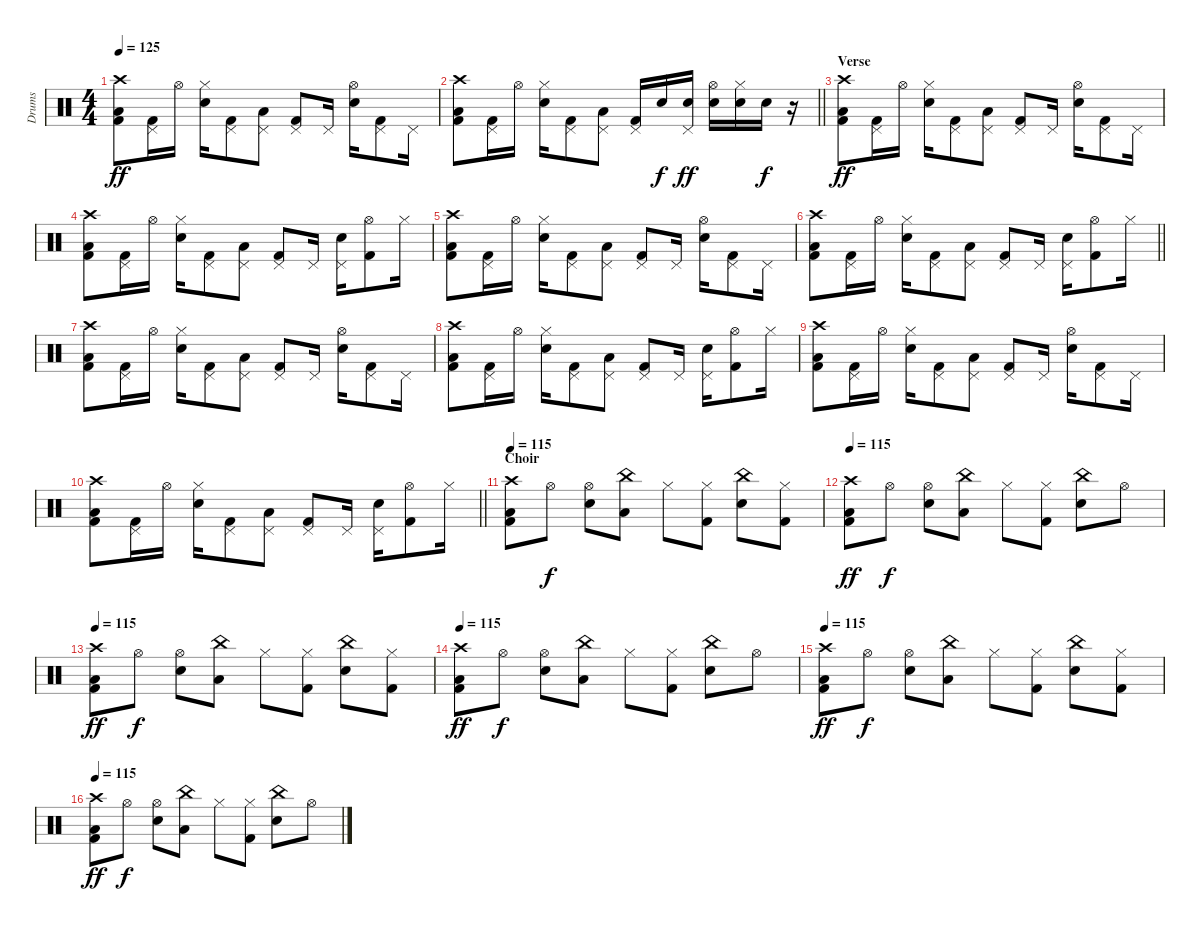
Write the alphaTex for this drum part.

\track ("Drums" "Drums") {instrument percussion}
\staff {score}
\articulation defaults
\ts (4 4)
\tempo 125
\clef neutral
\ks c
("Low Tom (hit)" "Kick (hit) 2" "Crash high (hit)").8{dy ff} ("Kick (hit) 2" "Pedal Hi-Hat (hit)").16 "Hi-Hat (open)".16 ("Snare (hit) 2" "Hi-Hat (closed)").16 ("Kick (hit) 2" "Pedal Hi-Hat (hit)").8 ("Low Tom (hit)" "Pedal Hi-Hat (hit)").8 ("Kick (hit) 2" "Pedal Hi-Hat (hit)").8 "Pedal Hi-Hat (hit)".16 ("Snare (hit) 2" "Hi-Hat (open)").16 ("Kick (hit) 2" "Pedal Hi-Hat (hit)").8 "Pedal Hi-Hat (hit)".16 |
\barLineRight lightlight
("Low Tom (hit)" "Kick (hit) 2" "Crash high (hit)").8 ("Kick (hit) 2" "Pedal Hi-Hat (hit)").16 "Hi-Hat (open)".16 ("Snare (hit) 2" "Hi-Hat (closed)").16 ("Kick (hit) 2" "Pedal Hi-Hat (hit)").8 ("Low Tom (hit)" "Pedal Hi-Hat (hit)").8 ("Kick (hit) 2" "Pedal Hi-Hat (hit)").16 "Electric Snare (hit)".16{dy f} ("Electric Snare (hit)" "Pedal Hi-Hat (hit)").16{dy ff} ("Electric Snare (hit)" "Hi-Hat (open)").16 ("Snare (hit) 2" "Hi-Hat (closed)").16 "Snare (hit) 2".16{dy f} r.16 |
\section ("" "Verse")
("Low Tom (hit)" "Kick (hit) 2" "Crash high (hit)").8{dy ff} ("Kick (hit) 2" "Pedal Hi-Hat (hit)").16 "Hi-Hat (open)".16 ("Snare (hit) 2" "Hi-Hat (closed)").16 ("Kick (hit) 2" "Pedal Hi-Hat (hit)").8 ("Low Tom (hit)" "Pedal Hi-Hat (hit)").8 ("Kick (hit) 2" "Pedal Hi-Hat (hit)").8 "Pedal Hi-Hat (hit)".16 ("Snare (hit) 2" "Hi-Hat (open)").16 ("Kick (hit) 2" "Pedal Hi-Hat (hit)").8 "Pedal Hi-Hat (hit)".16 |
("Low Tom (hit)" "Kick (hit) 2" "Crash high (hit)").8 ("Kick (hit) 2" "Pedal Hi-Hat (hit)").16 "Hi-Hat (open)".16 ("Snare (hit) 2" "Hi-Hat (closed)").16 ("Kick (hit) 2" "Pedal Hi-Hat (hit)").8 ("Low Tom (hit)" "Pedal Hi-Hat (hit)").8 ("Kick (hit) 2" "Pedal Hi-Hat (hit)").8 "Pedal Hi-Hat (hit)".16 ("Snare (hit) 2" "Pedal Hi-Hat (hit)").16 ("Kick (hit) 2" "Hi-Hat (open)").8 "Hi-Hat (closed)".16 |
("Low Tom (hit)" "Kick (hit) 2" "Crash high (hit)").8 ("Kick (hit) 2" "Pedal Hi-Hat (hit)").16 "Hi-Hat (open)".16 ("Snare (hit) 2" "Hi-Hat (closed)").16 ("Kick (hit) 2" "Pedal Hi-Hat (hit)").8 ("Low Tom (hit)" "Pedal Hi-Hat (hit)").8 ("Kick (hit) 2" "Pedal Hi-Hat (hit)").8 "Pedal Hi-Hat (hit)".16 ("Snare (hit) 2" "Hi-Hat (open)").16 ("Kick (hit) 2" "Pedal Hi-Hat (hit)").8 "Pedal Hi-Hat (hit)".16 |
\barLineRight lightlight
("Low Tom (hit)" "Kick (hit) 2" "Crash high (hit)").8 ("Kick (hit) 2" "Pedal Hi-Hat (hit)").16 "Hi-Hat (open)".16 ("Snare (hit) 2" "Hi-Hat (closed)").16 ("Kick (hit) 2" "Pedal Hi-Hat (hit)").8 ("Low Tom (hit)" "Pedal Hi-Hat (hit)").8 ("Kick (hit) 2" "Pedal Hi-Hat (hit)").8 "Pedal Hi-Hat (hit)".16 ("Snare (hit) 2" "Pedal Hi-Hat (hit)").16 ("Kick (hit) 2" "Hi-Hat (open)").8 "Hi-Hat (closed)".16 |
("Low Tom (hit)" "Kick (hit) 2" "Crash high (hit)").8 ("Kick (hit) 2" "Pedal Hi-Hat (hit)").16 "Hi-Hat (open)".16 ("Snare (hit) 2" "Hi-Hat (closed)").16 ("Kick (hit) 2" "Pedal Hi-Hat (hit)").8 ("Low Tom (hit)" "Pedal Hi-Hat (hit)").8 ("Kick (hit) 2" "Pedal Hi-Hat (hit)").8 "Pedal Hi-Hat (hit)".16 ("Snare (hit) 2" "Hi-Hat (open)").16 ("Kick (hit) 2" "Pedal Hi-Hat (hit)").8 "Pedal Hi-Hat (hit)".16 |
("Low Tom (hit)" "Kick (hit) 2" "Crash high (hit)").8 ("Kick (hit) 2" "Pedal Hi-Hat (hit)").16 "Hi-Hat (open)".16 ("Snare (hit) 2" "Hi-Hat (closed)").16 ("Kick (hit) 2" "Pedal Hi-Hat (hit)").8 ("Low Tom (hit)" "Pedal Hi-Hat (hit)").8 ("Kick (hit) 2" "Pedal Hi-Hat (hit)").8 "Pedal Hi-Hat (hit)".16 ("Snare (hit) 2" "Pedal Hi-Hat (hit)").16 ("Kick (hit) 2" "Hi-Hat (open)").8 "Hi-Hat (closed)".16 |
("Low Tom (hit)" "Kick (hit) 2" "Crash high (hit)").8 ("Kick (hit) 2" "Pedal Hi-Hat (hit)").16 "Hi-Hat (open)".16 ("Snare (hit) 2" "Hi-Hat (closed)").16 ("Kick (hit) 2" "Pedal Hi-Hat (hit)").8 ("Low Tom (hit)" "Pedal Hi-Hat (hit)").8 ("Kick (hit) 2" "Pedal Hi-Hat (hit)").8 "Pedal Hi-Hat (hit)".16 ("Snare (hit) 2" "Hi-Hat (open)").16 ("Kick (hit) 2" "Pedal Hi-Hat (hit)").8 "Pedal Hi-Hat (hit)".16 |
\barLineRight lightlight
("Low Tom (hit)" "Kick (hit) 2" "Crash high (hit)").8 ("Kick (hit) 2" "Pedal Hi-Hat (hit)").16 "Hi-Hat (open)".16 ("Snare (hit) 2" "Hi-Hat (closed)").16 ("Kick (hit) 2" "Pedal Hi-Hat (hit)").8 ("Low Tom (hit)" "Pedal Hi-Hat (hit)").8 ("Kick (hit) 2" "Pedal Hi-Hat (hit)").8 "Pedal Hi-Hat (hit)".16 ("Snare (hit) 2" "Pedal Hi-Hat (hit)").16 ("Kick (hit) 2" "Hi-Hat (open)").8 "Hi-Hat (closed)".16 |
\section ("" "Choir")
\tempo 115
("Low Tom (hit)" "Kick (hit) 2" "Crash high (hit)").8 "Hi-Hat (open)".8{dy f} ("Snare (hit) 2" "Hi-Hat (open)").8 ("Low Tom (hit)" "China (hit)").8 "Hi-Hat (closed)".8 ("Kick (hit) 2" "Hi-Hat (closed)").8 ("Snare (hit) 2" "China (hit)").8 ("Kick (hit) 2" "Hi-Hat (closed)").8 |
\tempo 115
("Low Tom (hit)" "Kick (hit) 2" "Crash high (hit)").8{dy ff} "Hi-Hat (open)".8{dy f} ("Snare (hit) 2" "Hi-Hat (open)").8 ("Low Tom (hit)" "China (hit)").8 "Hi-Hat (closed)".8 ("Kick (hit) 2" "Hi-Hat (closed)").8 ("Snare (hit) 2" "China (hit)").8 "Hi-Hat (open)".8 |
\tempo 115
("Low Tom (hit)" "Kick (hit) 2" "Crash high (hit)").8{dy ff} "Hi-Hat (open)".8{dy f} ("Snare (hit) 2" "Hi-Hat (open)").8 ("Low Tom (hit)" "China (hit)").8 "Hi-Hat (closed)".8 ("Kick (hit) 2" "Hi-Hat (closed)").8 ("Snare (hit) 2" "China (hit)").8 ("Kick (hit) 2" "Hi-Hat (closed)").8 |
\tempo 115
("Low Tom (hit)" "Kick (hit) 2" "Crash high (hit)").8{dy ff} "Hi-Hat (open)".8{dy f} ("Snare (hit) 2" "Hi-Hat (open)").8 ("Low Tom (hit)" "China (hit)").8 "Hi-Hat (closed)".8 ("Kick (hit) 2" "Hi-Hat (closed)").8 ("Snare (hit) 2" "China (hit)").8 "Hi-Hat (open)".8 |
\tempo 115
("Low Tom (hit)" "Kick (hit) 2" "Crash high (hit)").8{dy ff} "Hi-Hat (open)".8{dy f} ("Snare (hit) 2" "Hi-Hat (open)").8 ("Low Tom (hit)" "China (hit)").8 "Hi-Hat (closed)".8 ("Kick (hit) 2" "Hi-Hat (closed)").8 ("Snare (hit) 2" "China (hit)").8 ("Kick (hit) 2" "Hi-Hat (closed)").8 |
\tempo 115
("Low Tom (hit)" "Kick (hit) 2" "Crash high (hit)").8{dy ff} "Hi-Hat (open)".8{dy f} ("Snare (hit) 2" "Hi-Hat (open)").8 ("Low Tom (hit)" "China (hit)").8 "Hi-Hat (closed)".8 ("Kick (hit) 2" "Hi-Hat (closed)").8 ("Snare (hit) 2" "China (hit)").8 "Hi-Hat (open)".8
